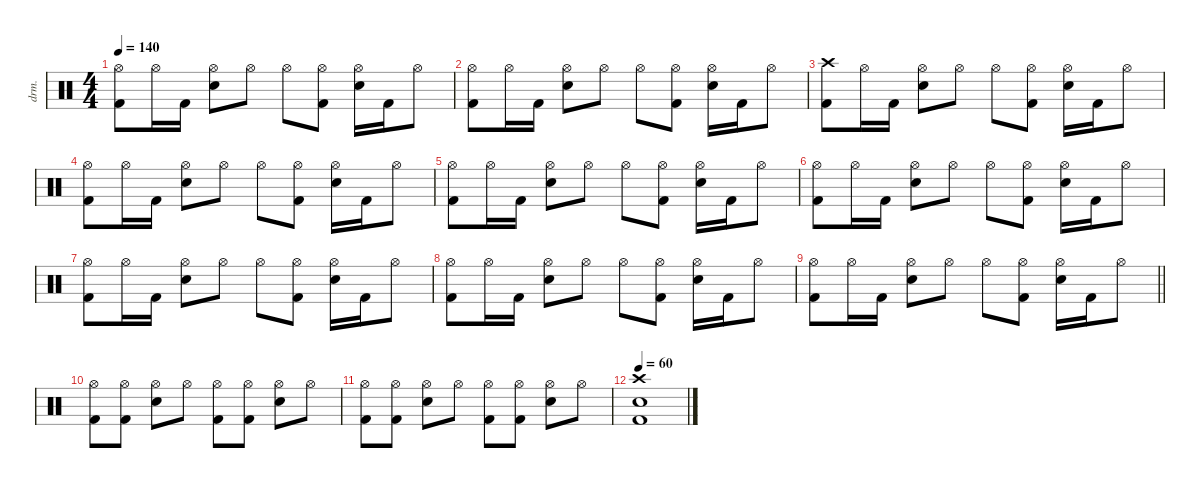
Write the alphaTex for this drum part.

\defaultSystemsLayout 4
\hideDynamics
\bracketExtendMode nobrackets
\otherSystemsTrackNameOrientation horizontal
\track ("Drums" "drm.") {defaultSystemsLayout 4 instrument percussion}
\staff {score}
\articulation defaults
\ts (4 4)
\tempo 140
\clef neutral
\ks c
("Hi-Hat (open)" "Kick (hit) 2").8{dy mf beam Down} "Hi-Hat (open)".16{beam Down} "Kick (hit) 2".16{dy f beam Down} ("Hi-Hat (open)" "Snare (hit) 2").8{dy mf beam Down} "Hi-Hat (open)".8{beam Down} "Hi-Hat (open)".8{beam Down} ("Hi-Hat (open)" "Kick (hit) 2").8{beam Down} ("Hi-Hat (open)" "Snare (hit) 2").16{beam Down} "Kick (hit) 2".16{dy f beam Down} "Hi-Hat (open)".8{dy mf beam Down} |
("Hi-Hat (open)" "Kick (hit) 2").8{beam Down} "Hi-Hat (open)".16{beam Down} "Kick (hit) 2".16{dy f beam Down} ("Hi-Hat (open)" "Snare (hit) 2").8{dy mf beam Down} "Hi-Hat (open)".8{beam Down} "Hi-Hat (open)".8{beam Down} ("Hi-Hat (open)" "Kick (hit) 2").8{beam Down} ("Hi-Hat (open)" "Snare (hit) 2").16{beam Down} "Kick (hit) 2".16{dy f beam Down} "Hi-Hat (open)".8{dy mf beam Down} |
("Crash high (hit)" "Kick (hit) 2").8{dy f beam Down} "Hi-Hat (open)".16{dy mf beam Down} "Kick (hit) 2".16{dy f beam Down} ("Hi-Hat (open)" "Snare (hit) 2").8{dy mf beam Down} "Hi-Hat (open)".8{beam Down} "Hi-Hat (open)".8{beam Down} ("Hi-Hat (open)" "Kick (hit) 2").8{beam Down} ("Hi-Hat (open)" "Snare (hit) 2").16{beam Down} "Kick (hit) 2".16{dy f beam Down} "Hi-Hat (open)".8{dy mf beam Down} |
("Hi-Hat (open)" "Kick (hit) 2").8{beam Down} "Hi-Hat (open)".16{beam Down} "Kick (hit) 2".16{dy f beam Down} ("Hi-Hat (open)" "Snare (hit) 2").8{dy mf beam Down} "Hi-Hat (open)".8{beam Down} "Hi-Hat (open)".8{beam Down} ("Hi-Hat (open)" "Kick (hit) 2").8{beam Down} ("Hi-Hat (open)" "Snare (hit) 2").16{beam Down} "Kick (hit) 2".16{dy f beam Down} "Hi-Hat (open)".8{dy mf beam Down} |
("Hi-Hat (open)" "Kick (hit) 2").8{beam Down} "Hi-Hat (open)".16{beam Down} "Kick (hit) 2".16{dy f beam Down} ("Hi-Hat (open)" "Snare (hit) 2").8{dy mf beam Down} "Hi-Hat (open)".8{beam Down} "Hi-Hat (open)".8{beam Down} ("Hi-Hat (open)" "Kick (hit) 2").8{beam Down} ("Hi-Hat (open)" "Snare (hit) 2").16{beam Down} "Kick (hit) 2".16{dy f beam Down} "Hi-Hat (open)".8{dy mf beam Down} |
("Hi-Hat (open)" "Kick (hit) 2").8{beam Down} "Hi-Hat (open)".16{beam Down} "Kick (hit) 2".16{dy f beam Down} ("Hi-Hat (open)" "Snare (hit) 2").8{dy mf beam Down} "Hi-Hat (open)".8{beam Down} "Hi-Hat (open)".8{beam Down} ("Hi-Hat (open)" "Kick (hit) 2").8{beam Down} ("Hi-Hat (open)" "Snare (hit) 2").16{beam Down} "Kick (hit) 2".16{dy f beam Down} "Hi-Hat (open)".8{dy mf beam Down} |
("Hi-Hat (open)" "Kick (hit) 2").8{beam Down} "Hi-Hat (open)".16{beam Down} "Kick (hit) 2".16{dy f beam Down} ("Hi-Hat (open)" "Snare (hit) 2").8{dy mf beam Down} "Hi-Hat (open)".8{beam Down} "Hi-Hat (open)".8{beam Down} ("Hi-Hat (open)" "Kick (hit) 2").8{beam Down} ("Hi-Hat (open)" "Snare (hit) 2").16{beam Down} "Kick (hit) 2".16{dy f beam Down} "Hi-Hat (open)".8{dy mf beam Down} |
("Hi-Hat (open)" "Kick (hit) 2").8{beam Down} "Hi-Hat (open)".16{beam Down} "Kick (hit) 2".16{dy f beam Down} ("Hi-Hat (open)" "Snare (hit) 2").8{dy mf beam Down} "Hi-Hat (open)".8{beam Down} "Hi-Hat (open)".8{beam Down} ("Hi-Hat (open)" "Kick (hit) 2").8{beam Down} ("Hi-Hat (open)" "Snare (hit) 2").16{beam Down} "Kick (hit) 2".16{dy f beam Down} "Hi-Hat (open)".8{dy mf beam Down} |
\barLineRight lightlight
("Hi-Hat (open)" "Kick (hit) 2").8{beam Down} "Hi-Hat (open)".16{beam Down} "Kick (hit) 2".16{dy f beam Down} ("Hi-Hat (open)" "Snare (hit) 2").8{dy mf beam Down} "Hi-Hat (open)".8{beam Down} "Hi-Hat (open)".8{beam Down} ("Hi-Hat (open)" "Kick (hit) 2").8{beam Down} ("Hi-Hat (open)" "Snare (hit) 2").16{beam Down} "Kick (hit) 2".16{dy f beam Down} "Hi-Hat (open)".8{dy mf beam Down} |
("Hi-Hat (open)" "Kick (hit) 2").8{beam Down} ("Hi-Hat (open)" "Kick (hit) 2").8{beam Down} ("Hi-Hat (open)" "Snare (hit) 2").8{beam Down} "Hi-Hat (open)".8{beam Down} ("Hi-Hat (open)" "Kick (hit) 2").8{beam Down} ("Hi-Hat (open)" "Kick (hit) 2").8{beam Down} ("Hi-Hat (open)" "Snare (hit) 2").8{beam Down} "Hi-Hat (open)".8{beam Down} |
("Hi-Hat (open)" "Kick (hit) 2").8{beam Down} ("Hi-Hat (open)" "Kick (hit) 2").8{beam Down} ("Hi-Hat (open)" "Snare (hit) 2").8{beam Down} "Hi-Hat (open)".8{beam Down} ("Hi-Hat (open)" "Kick (hit) 2").8{beam Down} ("Hi-Hat (open)" "Kick (hit) 2").8{beam Down} ("Hi-Hat (open)" "Snare (hit) 2").8{beam Down} "Hi-Hat (open)".8{beam Down} |
\tempo 60
("Crash high (hit)" "Snare (hit) 2" "Kick (hit) 2").1{dy f beam Down}
